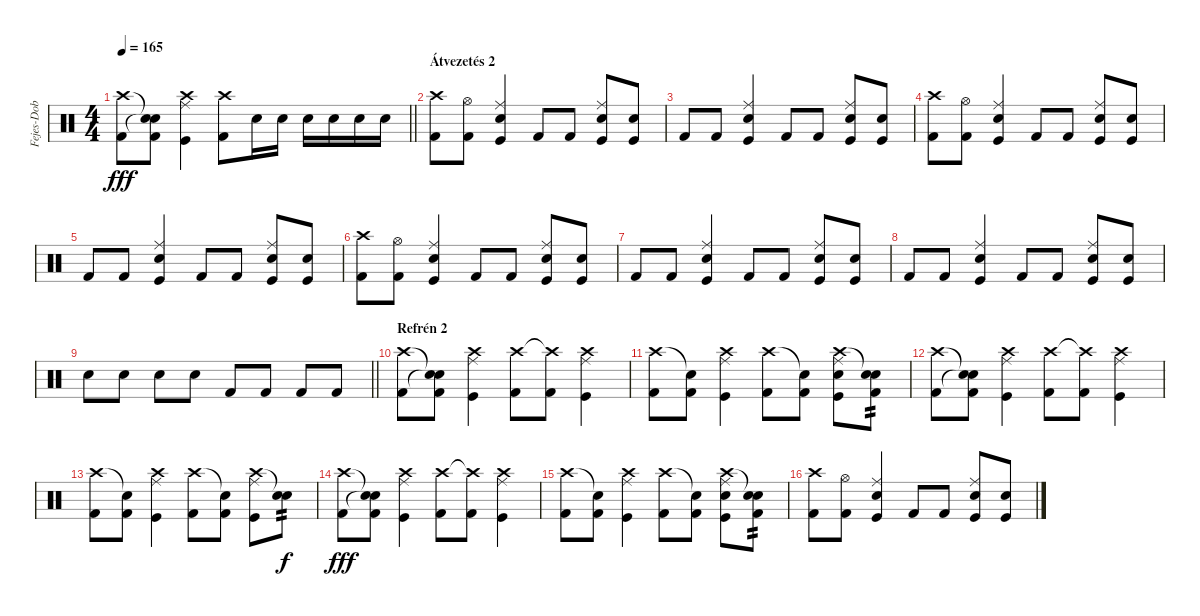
\track ("Fejes-Dob" "Fejes-Dob") {instrument percussion}
\staff {score}
\articulation defaults
\ts (4 4)
\tempo 165
\clef neutral
\barLineRight lightlight
\ks c
("Crash high (hit)" "Kick (hit) 2").8{dy fff} ("Snare (hit)"{t} "Snare (hit)"{t} "Kick (hit) 2").8 ("Crash high (hit)" "Ride (middle)" "Kick (hit)").4 ("Crash high (hit)" "Kick (hit) 2").8 "Electric Snare (hit)".16 "Electric Snare (hit)".16 "Electric Snare (hit)".16 "Snare (hit) 2".16 "Snare (hit) 2".16 "Snare (hit) 2".16 |
\section ("" "Átvezetés 2")
("Crash high (hit)" "Kick (hit) 2").8 ("Hi-Hat (open)" "Kick (hit) 2").8 ("Ride (middle)" "Snare (hit) 2" "Kick (hit)").4 "Kick (hit) 2".8 "Kick (hit) 2".8 ("Ride (middle)" "Snare (hit) 2" "Kick (hit)").8 ("Snare (hit) 2" "Kick (hit)").8 |
"Kick (hit) 2".8 "Kick (hit) 2".8 ("Ride (middle)" "Snare (hit) 2" "Kick (hit)").4 "Kick (hit) 2".8 "Kick (hit) 2".8 ("Ride (middle)" "Snare (hit) 2" "Kick (hit)").8 ("Snare (hit) 2" "Kick (hit)").8 |
("Crash high (hit)" "Kick (hit) 2").8 ("Hi-Hat (open)" "Kick (hit) 2").8 ("Ride (middle)" "Snare (hit) 2" "Kick (hit)").4 "Kick (hit) 2".8 "Kick (hit) 2".8 ("Ride (middle)" "Snare (hit) 2" "Kick (hit)").8 ("Snare (hit) 2" "Kick (hit)").8 |
"Kick (hit) 2".8 "Kick (hit) 2".8 ("Ride (middle)" "Snare (hit) 2" "Kick (hit)").4 "Kick (hit) 2".8 "Kick (hit) 2".8 ("Ride (middle)" "Snare (hit) 2" "Kick (hit)").8 ("Snare (hit) 2" "Kick (hit)").8 |
("Crash high (hit)" "Kick (hit) 2").8 ("Hi-Hat (open)" "Kick (hit) 2").8 ("Ride (middle)" "Snare (hit) 2" "Kick (hit)").4 "Kick (hit) 2".8 "Kick (hit) 2".8 ("Ride (middle)" "Snare (hit) 2" "Kick (hit)").8 ("Snare (hit) 2" "Kick (hit)").8 |
"Kick (hit) 2".8 "Kick (hit) 2".8 ("Ride (middle)" "Snare (hit) 2" "Kick (hit)").4 "Kick (hit) 2".8 "Kick (hit) 2".8 ("Ride (middle)" "Snare (hit) 2" "Kick (hit)").8 ("Snare (hit) 2" "Kick (hit)").8 |
"Kick (hit) 2".8 "Kick (hit) 2".8 ("Ride (middle)" "Snare (hit) 2" "Kick (hit)").4 "Kick (hit) 2".8 "Kick (hit) 2".8 ("Ride (middle)" "Snare (hit) 2" "Kick (hit)").8 ("Snare (hit) 2" "Kick (hit)").8 |
\barLineRight lightlight "Snare (hit) 2".8 "Snare (hit) 2".8 "Snare (hit) 2".8 "Snare (hit) 2".8 "Kick (hit) 2".8 "Kick (hit) 2".8 "Kick (hit) 2".8 "Kick (hit) 2".8
|
\section ("" "Refrén 2")
("Crash high (hit)" "Kick (hit) 2").8 ("Snare (hit)"{t} "Snare (hit)"{t} "Kick (hit) 2").8 ("Crash high (hit)" "Ride (middle)" "Kick (hit)").4 ("Crash high (hit)" "Kick (hit) 2").8 ("Crash high (hit)"{t} "Kick (hit) 2").8 ("Crash high (hit)" "Ride (middle)" "Kick (hit)").4 |
("Crash high (hit)" "Kick (hit) 2").8 ("Snare (hit)"{t} "Kick (hit) 2").8 ("Crash high (hit)" "Ride (middle)" "Kick (hit)").4 ("Crash high (hit)" "Kick (hit) 2").8 ("Snare (hit)"{t} "Kick (hit) 2").8 ("Crash high (hit)" "Ride (middle)" "Electric Snare (hit)" "Kick (hit)").8 ("Snare (hit)"{t} "Electric Snare (hit)" "Kick (hit) 2").8{tp 2} |
("Crash high (hit)" "Kick (hit) 2").8 ("Snare (hit)"{t} "Snare (hit)"{t} "Kick (hit) 2").8 ("Crash high (hit)" "Ride (middle)" "Kick (hit)").4 ("Crash high (hit)" "Kick (hit) 2").8 ("Crash high (hit)"{t} "Kick (hit) 2").8 ("Crash high (hit)" "Ride (middle)" "Kick (hit)").4 |
("Crash high (hit)" "Kick (hit) 2").8 ("Snare (hit)"{t} "Kick (hit) 2").8 ("Crash high (hit)" "Ride (middle)" "Kick (hit)").4 ("Crash high (hit)" "Kick (hit) 2").8 ("Snare (hit)"{t} "Kick (hit) 2").8 ("Crash high (hit)" "Ride (middle)" "Kick (hit)").8 ("Snare (hit)"{t} "Electric Snare (hit)").8{tp 2 dy f} |
("Crash high (hit)" "Kick (hit) 2").8{dy fff} ("Snare (hit)"{t} "Snare (hit)"{t} "Kick (hit) 2").8 ("Crash high (hit)" "Ride (middle)" "Kick (hit)").4 ("Crash high (hit)" "Kick (hit) 2").8 ("Crash high (hit)"{t} "Kick (hit) 2").8 ("Crash high (hit)" "Ride (middle)" "Kick (hit)").4 |
("Crash high (hit)" "Kick (hit) 2").8 ("Snare (hit)"{t} "Kick (hit) 2").8 ("Crash high (hit)" "Ride (middle)" "Kick (hit)").4 ("Crash high (hit)" "Kick (hit) 2").8 ("Snare (hit)"{t} "Kick (hit) 2").8 ("Crash high (hit)" "Ride (middle)" "Electric Snare (hit)" "Kick (hit)").8 ("Snare (hit)"{t} "Electric Snare (hit)" "Kick (hit) 2").8{tp 2} |
("Crash high (hit)" "Kick (hit) 2").8 ("Hi-Hat (open)" "Kick (hit) 2").8 ("Ride (middle)" "Snare (hit) 2" "Kick (hit)").4 "Kick (hit) 2".8 "Kick (hit) 2".8 ("Ride (middle)" "Snare (hit) 2" "Kick (hit)").8 ("Snare (hit) 2" "Kick (hit)").8
